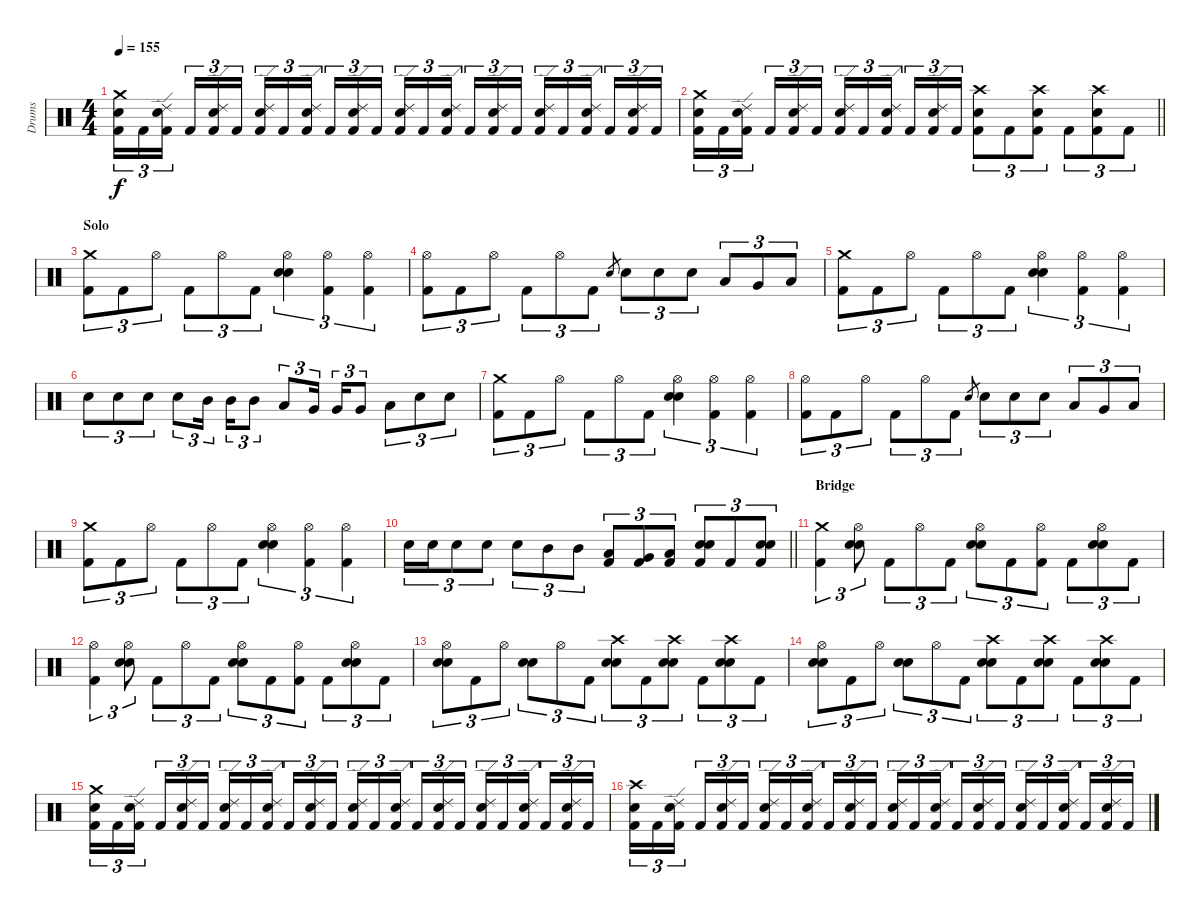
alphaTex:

\track ("Drums" "Drums") {instrument percussion}
\staff {score}
\articulation defaults
\ts (4 4)
\tempo 155
\clef neutral
\ks c
("Crash medium (hit)" "Electric Snare (hit)" "Kick (hit) 2").16{tu (3 2) dy f} "Kick (hit) 2".16{tu (3 2)} ("Ride (edge) 2" "Electric Snare (hit)" "Kick (hit) 2").16{tu (3 2) beam splitsecondary} "Kick (hit) 2".16{tu (3 2)} ("Ride (edge) 2" "Electric Snare (hit)" "Kick (hit) 2").16{tu (3 2)} "Kick (hit) 2".16{tu (3 2)} ("Ride (edge) 2" "Electric Snare (hit)" "Kick (hit) 2").16{tu (3 2)} "Kick (hit) 2".16{tu (3 2)} ("Ride (edge) 2" "Electric Snare (hit)" "Kick (hit) 2").16{tu (3 2) beam splitsecondary} "Kick (hit) 2".16{tu (3 2)} ("Ride (edge) 2" "Electric Snare (hit)" "Kick (hit) 2").16{tu (3 2)} "Kick (hit) 2".16{tu (3 2)} ("Ride (edge) 2" "Electric Snare (hit)" "Kick (hit) 2").16{tu (3 2)} "Kick (hit) 2".16{tu (3 2)} ("Ride (edge) 2" "Electric Snare (hit)" "Kick (hit) 2").16{tu (3 2) beam splitsecondary} "Kick (hit) 2".16{tu (3 2)} ("Ride (edge) 2" "Electric Snare (hit)" "Kick (hit) 2").16{tu (3 2)} "Kick (hit) 2".16{tu (3 2)} ("Ride (edge) 2" "Electric Snare (hit)" "Kick (hit) 2").16{tu (3 2)} "Kick (hit) 2".16{tu (3 2)} ("Ride (edge) 2" "Electric Snare (hit)" "Kick (hit) 2").16{tu (3 2) beam splitsecondary} "Kick (hit) 2".16{tu (3 2)} ("Ride (edge) 2" "Electric Snare (hit)" "Kick (hit) 2").16{tu (3 2)} "Kick (hit) 2".16{tu (3 2)} |
\barLineRight lightlight
("Crash medium (hit)" "Electric Snare (hit)" "Kick (hit) 2").16{tu (3 2)} "Kick (hit) 2".16{tu (3 2)} ("Ride (edge) 2" "Electric Snare (hit)" "Kick (hit) 2").16{tu (3 2) beam splitsecondary} "Kick (hit) 2".16{tu (3 2)} ("Ride (edge) 2" "Electric Snare (hit)" "Kick (hit) 2").16{tu (3 2)} "Kick (hit) 2".16{tu (3 2)} ("Ride (edge) 2" "Electric Snare (hit)" "Kick (hit) 2").16{tu (3 2)} "Kick (hit) 2".16{tu (3 2)} ("Ride (edge) 2" "Electric Snare (hit)" "Kick (hit) 2").16{tu (3 2) beam splitsecondary} "Kick (hit) 2".16{tu (3 2)} ("Ride (edge) 2" "Electric Snare (hit)" "Kick (hit) 2").16{tu (3 2)} "Kick (hit) 2".16{tu (3 2)} ("Crash high (hit)" "Electric Snare (hit)" "Kick (hit) 2").8{tu (3 2)} "Kick (hit) 2".8{tu (3 2)} ("Crash high (hit)" "Electric Snare (hit)" "Kick (hit) 2").8{tu (3 2)} "Kick (hit) 2".8{tu (3 2)} ("Crash high (hit)" "Electric Snare (hit)" "Kick (hit) 2").8{tu (3 2)} "Kick (hit) 2".8{tu (3 2)} |
\section ("" "Solo")
("Crash medium (hit)" "Kick (hit) 2").8{tu (3 2)} "Kick (hit) 2".8{tu (3 2)} "Hi-Hat (open)".8{tu (3 2)} "Kick (hit) 2".8{tu (3 2)} "Hi-Hat (open)".8{tu (3 2)} "Kick (hit) 2".8{tu (3 2)} ("Hi-Hat (open)" "Electric Snare (hit)" "Electric Snare (hit)").4{tu (3 2)} ("Hi-Hat (open)" "Kick (hit) 2").4{tu (3 2)} ("Hi-Hat (open)" "Kick (hit) 2").4{tu (3 2)} |
("Hi-Hat (open)" "Kick (hit) 2").8{tu (3 2)} "Kick (hit) 2".8{tu (3 2)} "Hi-Hat (open)".8{tu (3 2)} "Kick (hit) 2".8{tu (3 2)} "Hi-Hat (open)".8{tu (3 2)} "Kick (hit) 2".8{tu (3 2)} "Electric Snare (hit)".8{gr} "Electric Snare (hit)".8{tu (3 2)} "Electric Snare (hit)".8{tu (3 2)} "Electric Snare (hit)".8{tu (3 2)} "Low Tom (hit)".8{tu (3 2)} "Very Low Tom (hit)".8{tu (3 2)} "Low Floor Tom (hit)".8{tu (3 2)} |
("Crash medium (hit)" "Kick (hit) 2").8{tu (3 2)} "Kick (hit) 2".8{tu (3 2)} "Hi-Hat (open)".8{tu (3 2)} "Kick (hit) 2".8{tu (3 2)} "Hi-Hat (open)".8{tu (3 2)} "Kick (hit) 2".8{tu (3 2)} ("Hi-Hat (open)" "Electric Snare (hit)" "Electric Snare (hit)").4{tu (3 2)} ("Hi-Hat (open)" "Kick (hit) 2").4{tu (3 2)} ("Hi-Hat (open)" "Kick (hit) 2").4{tu (3 2)} |
"Electric Snare (hit)".8{tu (3 2)} "Electric Snare (hit)".8{tu (3 2)} "Electric Snare (hit)".8{tu (3 2)} "Electric Snare (hit)".8{tu (3 2)} "Mid Tom (hit)".16{tu (3 2) beam splitsecondary} "Mid Tom (hit)".16{tu (3 2)} "Mid Tom (hit)".8{tu (3 2)} "Low Tom (hit)".8{tu (3 2)} "Very Low Tom (hit)".16{tu (3 2) beam splitsecondary} "Very Low Tom (hit)".16{tu (3 2)} "Very Low Tom (hit)".8{tu (3 2)} "Low Floor Tom (hit)".8{tu (3 2)} "Electric Snare (hit)".8{tu (3 2)} "Electric Snare (hit)".8{tu (3 2)} |
("Crash medium (hit)" "Kick (hit) 2").8{tu (3 2)} "Kick (hit) 2".8{tu (3 2)} "Hi-Hat (open)".8{tu (3 2)} "Kick (hit) 2".8{tu (3 2)} "Hi-Hat (open)".8{tu (3 2)} "Kick (hit) 2".8{tu (3 2)} ("Hi-Hat (open)" "Electric Snare (hit)" "Electric Snare (hit)").4{tu (3 2)} ("Hi-Hat (open)" "Kick (hit) 2").4{tu (3 2)} ("Hi-Hat (open)" "Kick (hit) 2").4{tu (3 2)} |
("Hi-Hat (open)" "Kick (hit) 2").8{tu (3 2)} "Kick (hit) 2".8{tu (3 2)} "Hi-Hat (open)".8{tu (3 2)} "Kick (hit) 2".8{tu (3 2)} "Hi-Hat (open)".8{tu (3 2)} "Kick (hit) 2".8{tu (3 2)} "Electric Snare (hit)".8{gr} "Electric Snare (hit)".8{tu (3 2)} "Electric Snare (hit)".8{tu (3 2)} "Electric Snare (hit)".8{tu (3 2)} "Low Tom (hit)".8{tu (3 2)} "Very Low Tom (hit)".8{tu (3 2)} "Low Floor Tom (hit)".8{tu (3 2)} |
("Crash medium (hit)" "Kick (hit) 2").8{tu (3 2)} "Kick (hit) 2".8{tu (3 2)} "Hi-Hat (open)".8{tu (3 2)} "Kick (hit) 2".8{tu (3 2)} "Hi-Hat (open)".8{tu (3 2)} "Kick (hit) 2".8{tu (3 2)} ("Hi-Hat (open)" "Electric Snare (hit)" "Electric Snare (hit)").4{tu (3 2)} ("Hi-Hat (open)" "Kick (hit) 2").4{tu (3 2)} ("Hi-Hat (open)" "Kick (hit) 2").4{tu (3 2)} |
\barLineRight lightlight "Electric Snare (hit)".16{tu (3 2)} "Electric Snare (hit)".16{tu (3 2)} "Electric Snare (hit)".8{tu (3 2)} "Electric Snare (hit)".8{tu (3 2)} "Electric Snare (hit)".8{tu (3 2)} "Mid Tom (hit)".8{tu (3 2)} "Mid Tom (hit)".8{tu (3 2)}
("Low Tom (hit)" "Kick (hit) 2").8{tu (3 2)} ("Very Low Tom (hit)" "Kick (hit) 2").8{tu (3 2)} ("Low Floor Tom (hit)" "Kick (hit) 2").8{tu (3 2)} ("Electric Snare (hit)" "Electric Snare (hit)" "Kick (hit) 2").8{tu (3 2)} "Kick (hit) 2".8{tu (3 2)} ("Electric Snare (hit)" "Electric Snare (hit)" "Kick (hit) 2").8{tu (3 2)} |
\section ("" "Bridge")
("Crash medium (hit)" "Kick (hit) 2").4{tu (3 2)} ("Hi-Hat (open)" "Electric Snare (hit)" "Electric Snare (hit)").8{tu (3 2)} "Kick (hit) 2".8{tu (3 2)} "Hi-Hat (open)".8{tu (3 2)} "Kick (hit) 2".8{tu (3 2)} ("Hi-Hat (open)" "Electric Snare (hit)" "Electric Snare (hit)").8{tu (3 2)} "Kick (hit) 2".8{tu (3 2)} ("Hi-Hat (open)" "Kick (hit) 2").8{tu (3 2)} "Kick (hit) 2".8{tu (3 2)} ("Hi-Hat (open)" "Electric Snare (hit)" "Electric Snare (hit)").8{tu (3 2)} "Kick (hit) 2".8{tu (3 2)} |
("Hi-Hat (open)" "Kick (hit) 2").4{tu (3 2)} ("Hi-Hat (open)" "Electric Snare (hit)" "Electric Snare (hit)").8{tu (3 2)} "Kick (hit) 2".8{tu (3 2)} "Hi-Hat (open)".8{tu (3 2)} "Kick (hit) 2".8{tu (3 2)} ("Hi-Hat (open)" "Electric Snare (hit)" "Electric Snare (hit)").8{tu (3 2)} "Kick (hit) 2".8{tu (3 2)} ("Hi-Hat (open)" "Kick (hit) 2").8{tu (3 2)} "Kick (hit) 2".8{tu (3 2)} ("Hi-Hat (open)" "Electric Snare (hit)" "Electric Snare (hit)").8{tu (3 2)} "Kick (hit) 2".8{tu (3 2)} |
("Hi-Hat (open)" "Electric Snare (hit)" "Electric Snare (hit)").8{tu (3 2)} "Kick (hit) 2".8{tu (3 2)} "Hi-Hat (open)".8{tu (3 2)} ("Electric Snare (hit)" "Electric Snare (hit)").8{tu (3 2)} "Hi-Hat (open)".8{tu (3 2)} "Kick (hit) 2".8{tu (3 2)} ("Crash high (hit)" "Electric Snare (hit)" "Electric Snare (hit)").8{tu (3 2)} "Kick (hit) 2".8{tu (3 2)} ("Crash high (hit)" "Electric Snare (hit)" "Electric Snare (hit)").8{tu (3 2)} "Kick (hit) 2".8{tu (3 2)} ("Crash high (hit)" "Electric Snare (hit)" "Electric Snare (hit)").8{tu (3 2)} "Kick (hit) 2".8{tu (3 2)} |
("Hi-Hat (open)" "Electric Snare (hit)" "Electric Snare (hit)").8{tu (3 2)} "Kick (hit) 2".8{tu (3 2)} "Hi-Hat (open)".8{tu (3 2)} ("Electric Snare (hit)" "Electric Snare (hit)").8{tu (3 2)} "Hi-Hat (open)".8{tu (3 2)} "Kick (hit) 2".8{tu (3 2)} ("Crash high (hit)" "Electric Snare (hit)" "Electric Snare (hit)").8{tu (3 2)} "Kick (hit) 2".8{tu (3 2)} ("Crash high (hit)" "Electric Snare (hit)" "Electric Snare (hit)").8{tu (3 2)} "Kick (hit) 2".8{tu (3 2)} ("Crash high (hit)" "Electric Snare (hit)" "Electric Snare (hit)").8{tu (3 2)} "Kick (hit) 2".8{tu (3 2)} |
("Crash medium (hit)" "Electric Snare (hit)" "Kick (hit) 2").16{tu (3 2)} "Kick (hit) 2".16{tu (3 2)} ("Ride (edge) 2" "Electric Snare (hit)" "Kick (hit) 2").16{tu (3 2) beam splitsecondary} "Kick (hit) 2".16{tu (3 2)} ("Ride (edge) 2" "Electric Snare (hit)" "Kick (hit) 2").16{tu (3 2)} "Kick (hit) 2".16{tu (3 2)} ("Ride (edge) 2" "Electric Snare (hit)" "Kick (hit) 2").16{tu (3 2)} "Kick (hit) 2".16{tu (3 2)} ("Ride (edge) 2" "Electric Snare (hit)" "Kick (hit) 2").16{tu (3 2) beam splitsecondary} "Kick (hit) 2".16{tu (3 2)} ("Ride (edge) 2" "Electric Snare (hit)" "Kick (hit) 2").16{tu (3 2)} "Kick (hit) 2".16{tu (3 2)} ("Ride (edge) 2" "Electric Snare (hit)" "Kick (hit) 2").16{tu (3 2)} "Kick (hit) 2".16{tu (3 2)} ("Ride (edge) 2" "Electric Snare (hit)" "Kick (hit) 2").16{tu (3 2) beam splitsecondary} "Kick (hit) 2".16{tu (3 2)} ("Ride (edge) 2" "Electric Snare (hit)" "Kick (hit) 2").16{tu (3 2)} "Kick (hit) 2".16{tu (3 2)} ("Ride (edge) 2" "Electric Snare (hit)" "Kick (hit) 2").16{tu (3 2)} "Kick (hit) 2".16{tu (3 2)} ("Ride (edge) 2" "Electric Snare (hit)" "Kick (hit) 2").16{tu (3 2) beam splitsecondary} "Kick (hit) 2".16{tu (3 2)} ("Ride (edge) 2" "Electric Snare (hit)" "Kick (hit) 2").16{tu (3 2)} "Kick (hit) 2".16{tu (3 2)} |
("Crash high (hit)" "Electric Snare (hit)" "Kick (hit) 2").16{tu (3 2)} "Kick (hit) 2".16{tu (3 2)} ("Ride (edge) 2" "Electric Snare (hit)" "Kick (hit) 2").16{tu (3 2) beam splitsecondary} "Kick (hit) 2".16{tu (3 2)} ("Ride (edge) 2" "Electric Snare (hit)" "Kick (hit) 2").16{tu (3 2)} "Kick (hit) 2".16{tu (3 2)} ("Ride (edge) 2" "Electric Snare (hit)" "Kick (hit) 2").16{tu (3 2)} "Kick (hit) 2".16{tu (3 2)} ("Ride (edge) 2" "Electric Snare (hit)" "Kick (hit) 2").16{tu (3 2) beam splitsecondary} "Kick (hit) 2".16{tu (3 2)} ("Ride (edge) 2" "Electric Snare (hit)" "Kick (hit) 2").16{tu (3 2)} "Kick (hit) 2".16{tu (3 2)} ("Ride (edge) 2" "Electric Snare (hit)" "Kick (hit) 2").16{tu (3 2)} "Kick (hit) 2".16{tu (3 2)} ("Ride (edge) 2" "Electric Snare (hit)" "Kick (hit) 2").16{tu (3 2) beam splitsecondary} "Kick (hit) 2".16{tu (3 2)} ("Ride (edge) 2" "Electric Snare (hit)" "Kick (hit) 2").16{tu (3 2)} "Kick (hit) 2".16{tu (3 2)} ("Ride (edge) 2" "Electric Snare (hit)" "Kick (hit) 2").16{tu (3 2)} "Kick (hit) 2".16{tu (3 2)} ("Ride (edge) 2" "Electric Snare (hit)" "Kick (hit) 2").16{tu (3 2) beam splitsecondary} "Kick (hit) 2".16{tu (3 2)} ("Ride (edge) 2" "Electric Snare (hit)" "Kick (hit) 2").16{tu (3 2)} "Kick (hit) 2".16{tu (3 2)}
